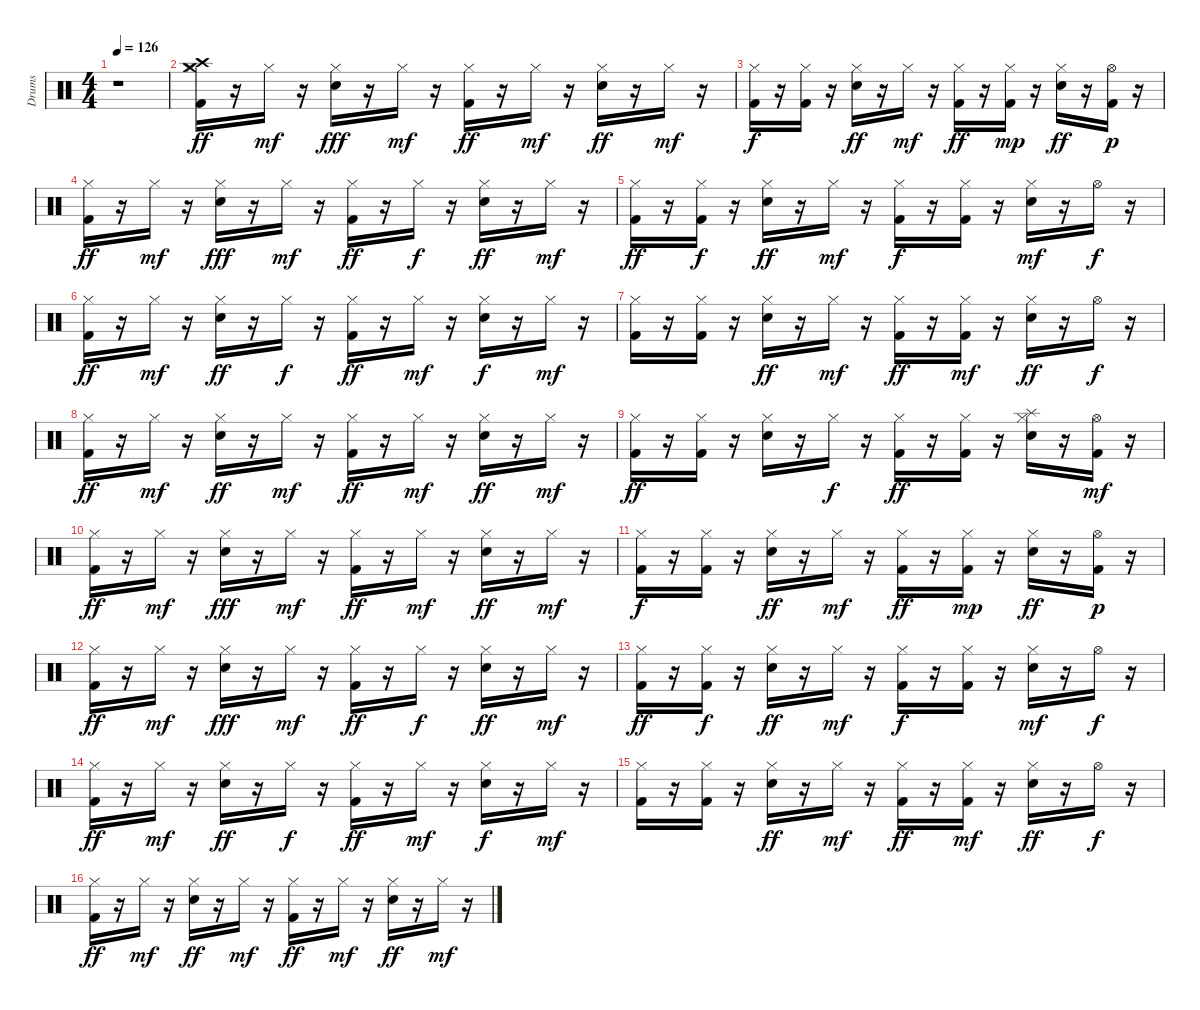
\track ("Drums" "Drums") {instrument percussion}
\staff {score}
\articulation defaults
\ts (4 4)
\tempo 126
\clef neutral
\ks c
r.1{dy ff} |
("Kick (hit) 2" "Hi-Hat (closed)" "Crash medium (hit)" "Crash high (hit)").16 r.16 "Hi-Hat (closed)".16{dy mf} r.16 ("Hi-Hat (closed)" "Snare (hit) 2").16{dy fff} r.16 "Hi-Hat (closed)".16{dy mf} r.16 ("Kick (hit) 2" "Hi-Hat (closed)").16{dy ff} r.16 "Hi-Hat (closed)".16{dy mf} r.16 ("Hi-Hat (closed)" "Snare (hit) 2").16{dy ff} r.16 "Hi-Hat (closed)".16{dy mf} r.16 |
("Kick (hit) 2" "Hi-Hat (closed)").16{dy f} r.16 ("Hi-Hat (closed)" "Kick (hit) 2").16 r.16 ("Hi-Hat (closed)" "Snare (hit) 2").16{dy ff} r.16 "Hi-Hat (closed)".16{dy mf} r.16 ("Hi-Hat (closed)" "Kick (hit) 2").16{dy ff} r.16 ("Kick (hit) 2" "Hi-Hat (closed)").16{dy mp} r.16 ("Hi-Hat (closed)" "Snare (hit) 2").16{dy ff} r.16 ("Hi-Hat (open)" "Kick (hit) 2").16{dy p} r.16 |
("Hi-Hat (closed)" "Kick (hit) 2").16{dy ff} r.16 "Hi-Hat (closed)".16{dy mf} r.16 ("Hi-Hat (closed)" "Snare (hit) 2").16{dy fff} r.16 "Hi-Hat (closed)".16{dy mf} r.16 ("Kick (hit) 2" "Hi-Hat (closed)").16{dy ff} r.16 "Hi-Hat (closed)".16{dy f} r.16 ("Snare (hit) 2" "Hi-Hat (closed)").16{dy ff} r.16 "Hi-Hat (closed)".16{dy mf} r.16 |
("Hi-Hat (closed)" "Kick (hit) 2").16{dy ff} r.16 ("Kick (hit) 2" "Hi-Hat (closed)").16{dy f} r.16 ("Hi-Hat (closed)" "Snare (hit) 2").16{dy ff} r.16 "Hi-Hat (closed)".16{dy mf} r.16 ("Kick (hit) 2" "Hi-Hat (closed)").16{dy f} r.16 ("Hi-Hat (closed)" "Kick (hit) 2").16 r.16 ("Snare (hit) 2" "Hi-Hat (closed)").16{dy mf} r.16 "Hi-Hat (open)".16{dy f} r.16 |
("Hi-Hat (closed)" "Kick (hit) 2").16{dy ff} r.16 "Hi-Hat (closed)".16{dy mf} r.16 ("Snare (hit) 2" "Hi-Hat (closed)").16{dy ff} r.16 "Hi-Hat (closed)".16{dy f} r.16 ("Kick (hit) 2" "Hi-Hat (closed)").16{dy ff} r.16 "Hi-Hat (closed)".16{dy mf} r.16 ("Snare (hit) 2" "Hi-Hat (closed)").16{dy f} r.16 "Hi-Hat (closed)".16{dy mf} r.16 |
("Kick (hit) 2" "Hi-Hat (closed)").16 r.16 ("Hi-Hat (closed)" "Kick (hit) 2").16 r.16 ("Hi-Hat (closed)" "Snare (hit) 2").16{dy ff} r.16 "Hi-Hat (closed)".16{dy mf} r.16 ("Hi-Hat (closed)" "Kick (hit) 2").16{dy ff} r.16 ("Hi-Hat (closed)" "Kick (hit) 2").16{dy mf} r.16 ("Hi-Hat (closed)" "Snare (hit) 2").16{dy ff} r.16 "Hi-Hat (open)".16{dy f} r.16 |
("Hi-Hat (closed)" "Kick (hit) 2").16{dy ff} r.16 "Hi-Hat (closed)".16{dy mf} r.16 ("Hi-Hat (closed)" "Snare (hit) 2").16{dy ff} r.16 "Hi-Hat (closed)".16{dy mf} r.16 ("Kick (hit) 2" "Hi-Hat (closed)").16{dy ff} r.16 "Hi-Hat (closed)".16{dy mf} r.16 ("Hi-Hat (closed)" "Snare (hit) 2").16{dy ff} r.16 "Hi-Hat (closed)".16{dy mf} r.16 |
("Kick (hit) 2" "Hi-Hat (closed)").16{dy ff} r.16 ("Hi-Hat (closed)" "Kick (hit) 2").16 r.16 ("Hi-Hat (closed)" "Snare (hit) 2").16 r.16 "Hi-Hat (closed)".16{dy f} r.16 ("Kick (hit) 2" "Hi-Hat (closed)").16{dy ff} r.16 ("Hi-Hat (closed)" "Kick (hit) 2").16 r.16 ("Hi-Hat (closed)" "Snare (hit) 2" "Splash (hit)").16 r.16 ("Hi-Hat (open)" "Kick (hit) 2").16{dy mf} r.16 |
("Kick (hit) 2" "Hi-Hat (closed)").16{dy ff} r.16 "Hi-Hat (closed)".16{dy mf} r.16 ("Hi-Hat (closed)" "Snare (hit) 2").16{dy fff} r.16 "Hi-Hat (closed)".16{dy mf} r.16 ("Kick (hit) 2" "Hi-Hat (closed)").16{dy ff} r.16 "Hi-Hat (closed)".16{dy mf} r.16 ("Hi-Hat (closed)" "Snare (hit) 2").16{dy ff} r.16 "Hi-Hat (closed)".16{dy mf} r.16 |
("Kick (hit) 2" "Hi-Hat (closed)").16{dy f} r.16 ("Hi-Hat (closed)" "Kick (hit) 2").16 r.16 ("Hi-Hat (closed)" "Snare (hit) 2").16{dy ff} r.16 "Hi-Hat (closed)".16{dy mf} r.16 ("Hi-Hat (closed)" "Kick (hit) 2").16{dy ff} r.16 ("Kick (hit) 2" "Hi-Hat (closed)").16{dy mp} r.16 ("Hi-Hat (closed)" "Snare (hit) 2").16{dy ff} r.16 ("Hi-Hat (open)" "Kick (hit) 2").16{dy p} r.16 |
("Hi-Hat (closed)" "Kick (hit) 2").16{dy ff} r.16 "Hi-Hat (closed)".16{dy mf} r.16 ("Hi-Hat (closed)" "Snare (hit) 2").16{dy fff} r.16 "Hi-Hat (closed)".16{dy mf} r.16 ("Kick (hit) 2" "Hi-Hat (closed)").16{dy ff} r.16 "Hi-Hat (closed)".16{dy f} r.16 ("Snare (hit) 2" "Hi-Hat (closed)").16{dy ff} r.16 "Hi-Hat (closed)".16{dy mf} r.16 |
("Hi-Hat (closed)" "Kick (hit) 2").16{dy ff} r.16 ("Kick (hit) 2" "Hi-Hat (closed)").16{dy f} r.16 ("Hi-Hat (closed)" "Snare (hit) 2").16{dy ff} r.16 "Hi-Hat (closed)".16{dy mf} r.16 ("Kick (hit) 2" "Hi-Hat (closed)").16{dy f} r.16 ("Hi-Hat (closed)" "Kick (hit) 2").16 r.16 ("Snare (hit) 2" "Hi-Hat (closed)").16{dy mf} r.16 "Hi-Hat (open)".16{dy f} r.16 |
("Hi-Hat (closed)" "Kick (hit) 2").16{dy ff} r.16 "Hi-Hat (closed)".16{dy mf} r.16 ("Snare (hit) 2" "Hi-Hat (closed)").16{dy ff} r.16 "Hi-Hat (closed)".16{dy f} r.16 ("Kick (hit) 2" "Hi-Hat (closed)").16{dy ff} r.16 "Hi-Hat (closed)".16{dy mf} r.16 ("Snare (hit) 2" "Hi-Hat (closed)").16{dy f} r.16 "Hi-Hat (closed)".16{dy mf} r.16 |
("Kick (hit) 2" "Hi-Hat (closed)").16 r.16 ("Hi-Hat (closed)" "Kick (hit) 2").16 r.16 ("Hi-Hat (closed)" "Snare (hit) 2").16{dy ff} r.16 "Hi-Hat (closed)".16{dy mf} r.16 ("Hi-Hat (closed)" "Kick (hit) 2").16{dy ff} r.16 ("Hi-Hat (closed)" "Kick (hit) 2").16{dy mf} r.16 ("Hi-Hat (closed)" "Snare (hit) 2").16{dy ff} r.16 "Hi-Hat (open)".16{dy f} r.16 |
("Hi-Hat (closed)" "Kick (hit) 2").16{dy ff} r.16 "Hi-Hat (closed)".16{dy mf} r.16 ("Hi-Hat (closed)" "Snare (hit) 2").16{dy ff} r.16 "Hi-Hat (closed)".16{dy mf} r.16 ("Kick (hit) 2" "Hi-Hat (closed)").16{dy ff} r.16 "Hi-Hat (closed)".16{dy mf} r.16 ("Hi-Hat (closed)" "Snare (hit) 2").16{dy ff} r.16 "Hi-Hat (closed)".16{dy mf} r.16
